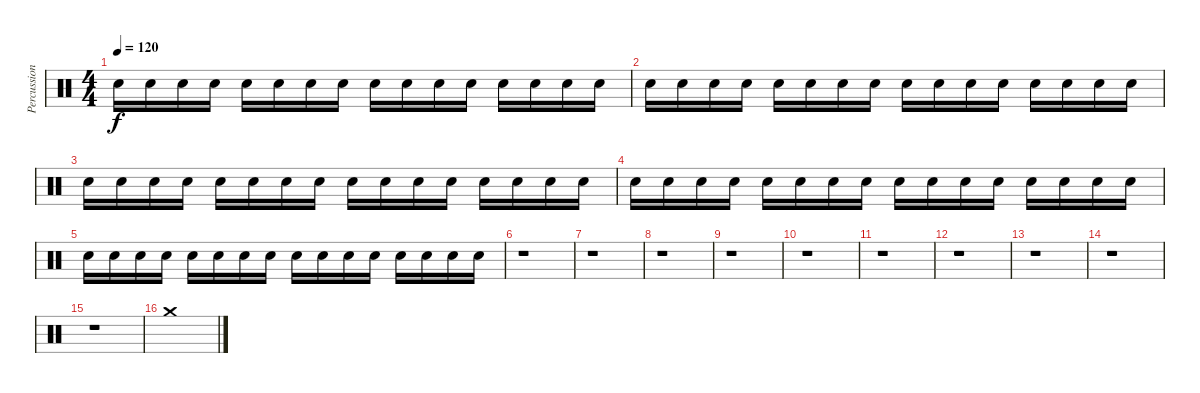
\track ("Percussion" "Percussion") {instrument percussion}
\staff {score}
\articulation defaults
\ts (4 4)
\tempo 120
\clef neutral
\ks c "Snare (hit) 2".16{dy f} "Snare (hit) 2".16 "Snare (hit) 2".16 "Snare (hit) 2".16 "Snare (hit) 2".16 "Snare (hit) 2".16 "Snare (hit) 2".16 "Snare (hit) 2".16 "Snare (hit) 2".16 "Snare (hit) 2".16 "Snare (hit) 2".16 "Snare (hit) 2".16 "Snare (hit) 2".16 "Snare (hit) 2".16 "Snare (hit) 2".16 "Snare (hit) 2".16
|
"Snare (hit) 2".16 "Snare (hit) 2".16 "Snare (hit) 2".16 "Snare (hit) 2".16 "Snare (hit) 2".16 "Snare (hit) 2".16 "Snare (hit) 2".16 "Snare (hit) 2".16 "Snare (hit) 2".16 "Snare (hit) 2".16 "Snare (hit) 2".16 "Snare (hit) 2".16 "Snare (hit) 2".16 "Snare (hit) 2".16 "Snare (hit) 2".16 "Snare (hit) 2".16 |
"Snare (hit) 2".16 "Snare (hit) 2".16 "Snare (hit) 2".16 "Snare (hit) 2".16 "Snare (hit) 2".16 "Snare (hit) 2".16 "Snare (hit) 2".16 "Snare (hit) 2".16 "Snare (hit) 2".16 "Snare (hit) 2".16 "Snare (hit) 2".16 "Snare (hit) 2".16 "Snare (hit) 2".16 "Snare (hit) 2".16 "Snare (hit) 2".16 "Snare (hit) 2".16 |
"Snare (hit) 2".16 "Snare (hit) 2".16 "Snare (hit) 2".16 "Snare (hit) 2".16 "Snare (hit) 2".16 "Snare (hit) 2".16 "Snare (hit) 2".16 "Snare (hit) 2".16 "Snare (hit) 2".16 "Snare (hit) 2".16 "Snare (hit) 2".16 "Snare (hit) 2".16 "Snare (hit) 2".16 "Snare (hit) 2".16 "Snare (hit) 2".16 "Snare (hit) 2".16 |
"Snare (hit) 2".16 "Snare (hit) 2".16 "Snare (hit) 2".16 "Snare (hit) 2".16 "Snare (hit) 2".16 "Snare (hit) 2".16 "Snare (hit) 2".16 "Snare (hit) 2".16 "Snare (hit) 2".16 "Snare (hit) 2".16 "Snare (hit) 2".16 "Snare (hit) 2".16 "Snare (hit) 2".16 "Snare (hit) 2".16 "Snare (hit) 2".16 "Snare (hit) 2".16 |
r.1 |
r.1 |
r.1 |
r.1 |
r.1 |
r.1 |
r.1 |
r.1 |
r.1 |
r.1 |
"Crash medium (hit)".1
